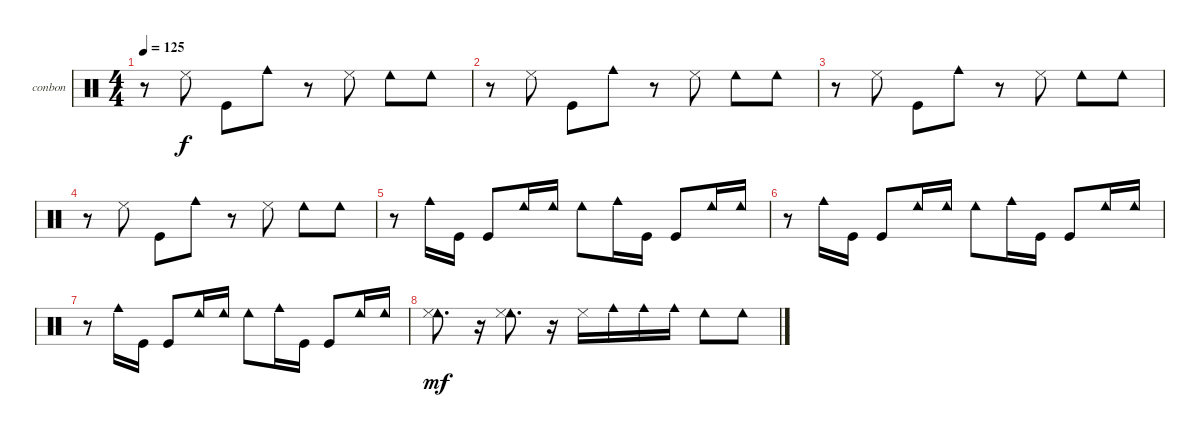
\bracketExtendMode groupsimilarinstruments
\firstSystemTrackNameOrientation horizontal
\otherSystemsTrackNameOrientation horizontal
\track ("Bongos N Congas" "conbon") {instrument percussion}
\staff {score}
\articulation defaults
\ts (4 4)
\tempo 125
\clef neutral
\ks c
r.8{dy f} "Cowbell low (tip)".8 "Kick (hit)".8 "Cowbell medium (hit)".8 r.8 "Cowbell low (tip)".8 "Cowbell low (hit)".8 "Cowbell low (hit)".8 |
r.8 "Cowbell low (tip)".8 "Kick (hit)".8 "Cowbell medium (hit)".8 r.8 "Cowbell low (tip)".8 "Cowbell low (hit)".8 "Cowbell low (hit)".8 |
r.8 "Cowbell low (tip)".8 "Kick (hit)".8 "Cowbell medium (hit)".8 r.8 "Cowbell low (tip)".8 "Cowbell low (hit)".8 "Cowbell low (hit)".8 |
r.8 "Cowbell low (tip)".8 "Kick (hit)".8 "Cowbell medium (hit)".8 r.8 "Cowbell low (tip)".8 "Cowbell low (hit)".8 "Cowbell low (hit)".8 |
r.8 "Cowbell medium (hit)".16 "Kick (hit)".16 "Kick (hit)".8 "Cowbell low (hit)".16 "Cowbell low (hit)".16 "Cowbell low (hit)".8 "Cowbell medium (hit)".16 "Kick (hit)".16 "Kick (hit)".8 "Cowbell low (hit)".16 "Cowbell low (hit)".16 |
r.8 "Cowbell medium (hit)".16 "Kick (hit)".16 "Kick (hit)".8 "Cowbell low (hit)".16 "Cowbell low (hit)".16 "Cowbell low (hit)".8 "Cowbell medium (hit)".16 "Kick (hit)".16 "Kick (hit)".8 "Cowbell low (hit)".16 "Cowbell low (hit)".16 |
r.8 "Cowbell medium (hit)".16 "Kick (hit)".16 "Kick (hit)".8 "Cowbell low (hit)".16 "Cowbell low (hit)".16 "Cowbell low (hit)".8 "Cowbell medium (hit)".16 "Kick (hit)".16 "Kick (hit)".8 "Cowbell low (hit)".16 "Cowbell low (hit)".16 |
("Cowbell low (hit)" "Cowbell low (tip)").8{d dy mf} r.16 ("Cowbell low (hit)" "Cowbell low (tip)").8{d} r.16 "Cowbell low (tip)".16 "Cowbell medium (hit)".16 "Cowbell medium (hit)".16 "Cowbell medium (hit)".16 "Cowbell low (hit)".8 "Cowbell low (hit)".8
